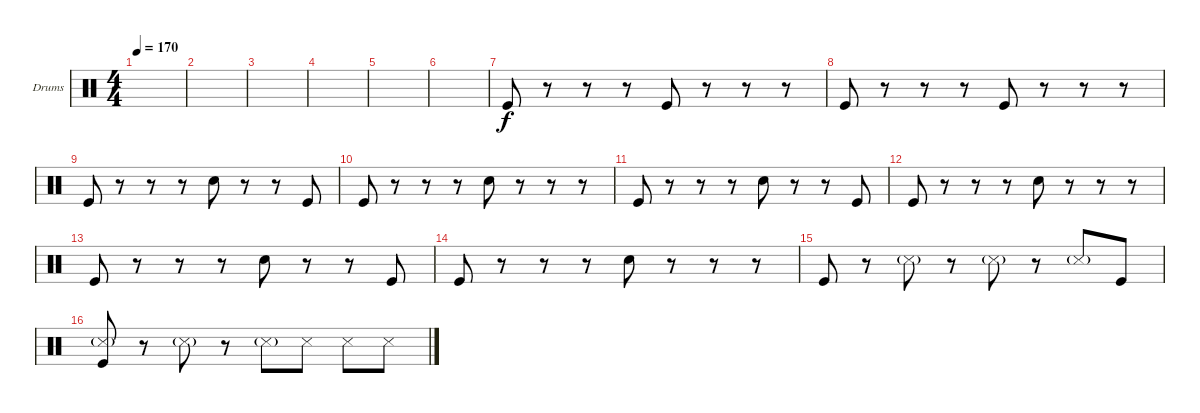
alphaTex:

\defaultSystemsLayout 4
\bracketExtendMode groupsimilarinstruments
\firstSystemTrackNameOrientation horizontal
\otherSystemsTrackNameOrientation horizontal
\track ("Drumkit" "Drums") {instrument percussion}
\staff {score}
\articulation defaults
\ts (4 4)
\tempo 170
\clef neutral
\ks c
|
|
|
|
|
|
"Kick (hit)".8 r.8 r.8 r.8 "Kick (hit)".8 r.8 r.8 r.8 |
"Kick (hit)".8 r.8 r.8 r.8 "Kick (hit)".8 r.8 r.8 r.8 |
"Kick (hit)".8 r.8 r.8 r.8 "Snare (hit) 2".8 r.8 r.8 "Kick (hit)".8 |
"Kick (hit)".8 r.8 r.8 r.8 "Snare (hit) 2".8 r.8 r.8 r.8 |
"Kick (hit)".8 r.8 r.8 r.8 "Snare (hit) 2".8 r.8 r.8 "Kick (hit)".8 |
"Kick (hit)".8 r.8 r.8 r.8 "Snare (hit) 2".8 r.8 r.8 r.8 |
"Kick (hit)".8 r.8 r.8 r.8 "Snare (hit) 2".8 r.8 r.8 "Kick (hit)".8 |
"Kick (hit)".8 r.8 r.8 r.8 "Snare (hit) 2".8 r.8 r.8 r.8 |
"Kick (hit)".8 r.8 "Snare (side stick) 3"{g}.8 r.8 "Snare (side stick) 3"{g}.8 r.8 "Snare (side stick) 3"{g}.8 "Kick (hit)".8 |
("Kick (hit)" "Snare (side stick) 3"{g}).8 r.8 "Snare (side stick) 3"{g}.8 r.8 "Snare (side stick) 3"{g}.8 "Snare (side stick) 3".8 "Snare (side stick) 3".8 "Snare (side stick) 3".8
